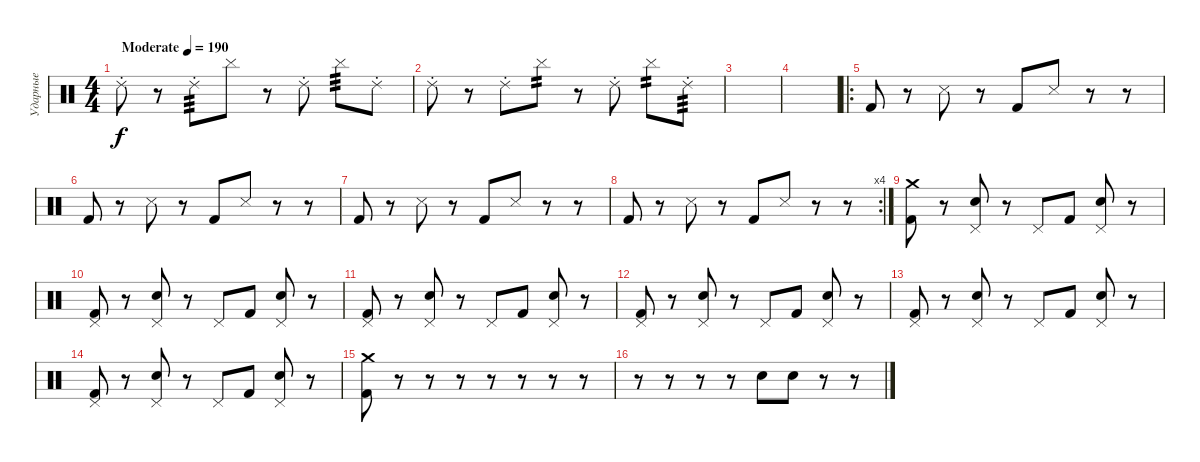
\track ("Ударные" "Ударные") {instrument percussion}
\staff {score}
\articulation defaults
\ts (4 4)
\tempo (190 "Moderate")
\clef neutral
\ks c "Ride (choke) 2".8{dy f}
r.8 "Ride (choke) 2".8{tp 3} "Cymbal (hit)".8 r.8 "Ride (choke) 2".8 "Cymbal (hit)".8{tp 3} "Ride (choke) 2".8 |
"Ride (choke) 2".8 r.8 "Ride (choke) 2".8 "Cymbal (hit)".8{tp 2} r.8 "Ride (choke) 2".8 "Cymbal (hit)".8{tp 2} "Ride (choke) 2".8{tp 3} |
|
|
\ro "Kick (hit) 2".8
r.8 "Snare (side stick) 3".8 r.8 "Kick (hit) 2".8 "Snare (side stick) 3".8 r.8 r.8 |
"Kick (hit) 2".8 r.8 "Snare (side stick) 3".8 r.8 "Kick (hit) 2".8 "Snare (side stick) 3".8 r.8 r.8 |
"Kick (hit) 2".8 r.8 "Snare (side stick) 3".8 r.8 "Kick (hit) 2".8 "Snare (side stick) 3".8 r.8 r.8 |
\rc 4 "Kick (hit) 2".8
r.8 "Snare (side stick) 3".8 r.8 "Kick (hit) 2".8 "Snare (side stick) 3".8 r.8 r.8 |
("Crash medium (hit)" "Kick (hit) 2").8 r.8 ("Pedal Hi-Hat (hit)" "Electric Snare (hit)").8 r.8 "Pedal Hi-Hat (hit)".8 "Kick (hit) 2".8 ("Pedal Hi-Hat (hit)" "Electric Snare (hit)").8 r.8 |
("Pedal Hi-Hat (hit)" "Kick (hit) 2").8 r.8 ("Pedal Hi-Hat (hit)" "Electric Snare (hit)").8 r.8 "Pedal Hi-Hat (hit)".8 "Kick (hit) 2".8 ("Pedal Hi-Hat (hit)" "Electric Snare (hit)").8 r.8 |
("Pedal Hi-Hat (hit)" "Kick (hit) 2").8 r.8 ("Pedal Hi-Hat (hit)" "Electric Snare (hit)").8 r.8 "Pedal Hi-Hat (hit)".8 "Kick (hit) 2".8 ("Pedal Hi-Hat (hit)" "Electric Snare (hit)").8 r.8 |
("Pedal Hi-Hat (hit)" "Kick (hit) 2").8 r.8 ("Pedal Hi-Hat (hit)" "Electric Snare (hit)").8 r.8 "Pedal Hi-Hat (hit)".8 "Kick (hit) 2".8 ("Pedal Hi-Hat (hit)" "Electric Snare (hit)").8 r.8 |
("Pedal Hi-Hat (hit)" "Kick (hit) 2").8 r.8 ("Pedal Hi-Hat (hit)" "Electric Snare (hit)").8 r.8 "Pedal Hi-Hat (hit)".8 "Kick (hit) 2".8 ("Pedal Hi-Hat (hit)" "Electric Snare (hit)").8 r.8 |
("Pedal Hi-Hat (hit)" "Kick (hit) 2").8 r.8 ("Pedal Hi-Hat (hit)" "Electric Snare (hit)").8 r.8 "Pedal Hi-Hat (hit)".8 "Kick (hit) 2".8 ("Pedal Hi-Hat (hit)" "Electric Snare (hit)").8 r.8 |
("Crash medium (hit)" "Kick (hit) 2").8 r.8 r.8 r.8 r.8 r.8 r.8 r.8 |
r.8 r.8 r.8 r.8 "Electric Snare (hit)".8 "Electric Snare (hit)".8 r.8 r.8
